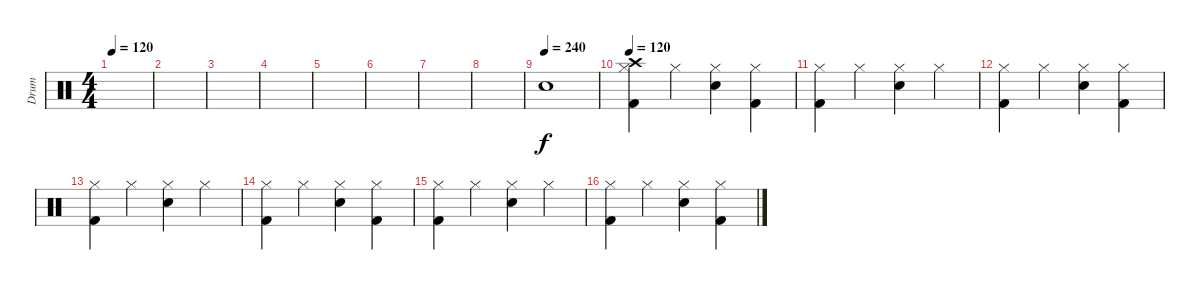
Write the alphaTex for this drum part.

\track ("Drum" "Drum") {instrument percussion}
\staff {score}
\articulation defaults
\ts (4 4)
\tempo 120
\clef neutral
\ks c
|
|
|
|
|
|
|
|
\tempo (240)
"Electric Snare (hit)".1 |
\tempo 120
("Crash high (hit)" "Hi-Hat (closed)" "Kick (hit) 2").4 "Hi-Hat (closed)".4 ("Hi-Hat (closed)" "Electric Snare (hit)").4 ("Hi-Hat (closed)" "Kick (hit) 2").4 |
("Hi-Hat (closed)" "Kick (hit) 2").4 "Hi-Hat (closed)".4 ("Hi-Hat (closed)" "Electric Snare (hit)").4 "Hi-Hat (closed)".4 |
("Hi-Hat (closed)" "Kick (hit) 2").4 "Hi-Hat (closed)".4 ("Hi-Hat (closed)" "Electric Snare (hit)").4 ("Hi-Hat (closed)" "Kick (hit) 2").4 |
("Hi-Hat (closed)" "Kick (hit) 2").4 "Hi-Hat (closed)".4 ("Hi-Hat (closed)" "Electric Snare (hit)").4 "Hi-Hat (closed)".4 |
("Hi-Hat (closed)" "Kick (hit) 2").4 "Hi-Hat (closed)".4 ("Hi-Hat (closed)" "Electric Snare (hit)").4 ("Hi-Hat (closed)" "Kick (hit) 2").4 |
("Hi-Hat (closed)" "Kick (hit) 2").4 "Hi-Hat (closed)".4 ("Hi-Hat (closed)" "Electric Snare (hit)").4 "Hi-Hat (closed)".4 |
("Hi-Hat (closed)" "Kick (hit) 2").4 "Hi-Hat (closed)".4 ("Hi-Hat (closed)" "Electric Snare (hit)").4 ("Hi-Hat (closed)" "Kick (hit) 2").4
